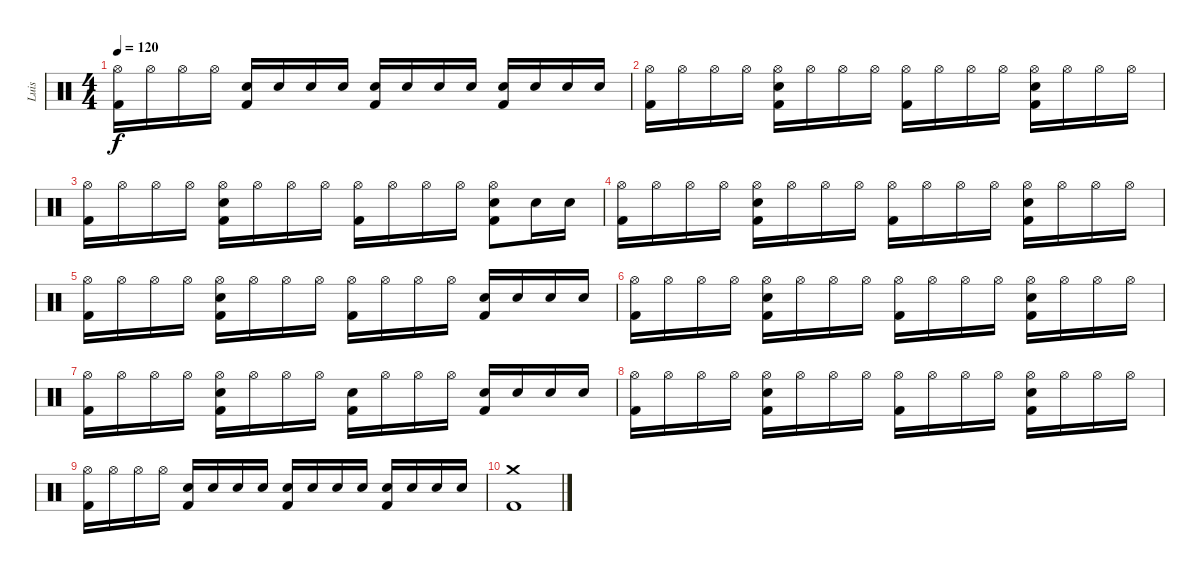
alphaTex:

\track ("Luis" "Luis") {instrument percussion}
\staff {score}
\articulation defaults
\ts (4 4)
\tempo 120
\clef neutral
\ks c
("Hi-Hat (open)" "Kick (hit) 2").16{dy f} "Hi-Hat (open)".16 "Hi-Hat (open)".16 "Hi-Hat (open)".16 ("Electric Snare (hit)" "Kick (hit) 2").16 "Electric Snare (hit)".16 "Electric Snare (hit)".16 "Electric Snare (hit)".16 ("Electric Snare (hit)" "Kick (hit) 2").16 "Electric Snare (hit)".16 "Electric Snare (hit)".16 "Electric Snare (hit)".16 ("Electric Snare (hit)" "Kick (hit) 2").16 "Electric Snare (hit)".16 "Electric Snare (hit)".16 "Electric Snare (hit)".16 |
("Hi-Hat (open)" "Kick (hit) 2").16 "Hi-Hat (open)".16 "Hi-Hat (open)".16 "Hi-Hat (open)".16 ("Hi-Hat (open)" "Electric Snare (hit)" "Kick (hit) 2").16 "Hi-Hat (open)".16 "Hi-Hat (open)".16 "Hi-Hat (open)".16 ("Hi-Hat (open)" "Kick (hit) 2").16 "Hi-Hat (open)".16 "Hi-Hat (open)".16 "Hi-Hat (open)".16 ("Hi-Hat (open)" "Electric Snare (hit)" "Kick (hit) 2").16 "Hi-Hat (open)".16 "Hi-Hat (open)".16 "Hi-Hat (open)".16 |
("Hi-Hat (open)" "Kick (hit) 2").16 "Hi-Hat (open)".16 "Hi-Hat (open)".16 "Hi-Hat (open)".16 ("Hi-Hat (open)" "Electric Snare (hit)" "Kick (hit) 2").16 "Hi-Hat (open)".16 "Hi-Hat (open)".16 "Hi-Hat (open)".16 ("Hi-Hat (open)" "Kick (hit) 2").16 "Hi-Hat (open)".16 "Hi-Hat (open)".16 "Hi-Hat (open)".16 ("Hi-Hat (open)" "Electric Snare (hit)" "Kick (hit) 2").8 "Electric Snare (hit)".16 "Electric Snare (hit)".16 |
("Hi-Hat (open)" "Kick (hit) 2").16 "Hi-Hat (open)".16 "Hi-Hat (open)".16 "Hi-Hat (open)".16 ("Hi-Hat (open)" "Electric Snare (hit)" "Kick (hit) 2").16 "Hi-Hat (open)".16 "Hi-Hat (open)".16 "Hi-Hat (open)".16 ("Hi-Hat (open)" "Kick (hit) 2").16 "Hi-Hat (open)".16 "Hi-Hat (open)".16 "Hi-Hat (open)".16 ("Hi-Hat (open)" "Electric Snare (hit)" "Kick (hit) 2").16 "Hi-Hat (open)".16 "Hi-Hat (open)".16 "Hi-Hat (open)".16 |
("Hi-Hat (open)" "Kick (hit) 2").16 "Hi-Hat (open)".16 "Hi-Hat (open)".16 "Hi-Hat (open)".16 ("Hi-Hat (open)" "Electric Snare (hit)" "Kick (hit) 2").16 "Hi-Hat (open)".16 "Hi-Hat (open)".16 "Hi-Hat (open)".16 ("Hi-Hat (open)" "Kick (hit) 2").16 "Hi-Hat (open)".16 "Hi-Hat (open)".16 "Hi-Hat (open)".16 ("Electric Snare (hit)" "Kick (hit) 2").16 "Electric Snare (hit)".16 "Electric Snare (hit)".16 "Electric Snare (hit)".16 |
("Hi-Hat (open)" "Kick (hit) 2").16 "Hi-Hat (open)".16 "Hi-Hat (open)".16 "Hi-Hat (open)".16 ("Hi-Hat (open)" "Electric Snare (hit)" "Kick (hit) 2").16 "Hi-Hat (open)".16 "Hi-Hat (open)".16 "Hi-Hat (open)".16 ("Hi-Hat (open)" "Kick (hit) 2").16 "Hi-Hat (open)".16 "Hi-Hat (open)".16 "Hi-Hat (open)".16 ("Hi-Hat (open)" "Electric Snare (hit)" "Kick (hit) 2").16 "Hi-Hat (open)".16 "Hi-Hat (open)".16 "Hi-Hat (open)".16 |
("Hi-Hat (open)" "Kick (hit) 2").16 "Hi-Hat (open)".16 "Hi-Hat (open)".16 "Hi-Hat (open)".16 ("Hi-Hat (open)" "Electric Snare (hit)" "Kick (hit) 2").16 "Hi-Hat (open)".16 "Hi-Hat (open)".16 "Hi-Hat (open)".16 ("Electric Snare (hit)" "Kick (hit) 2").16 "Hi-Hat (open)".16 "Hi-Hat (open)".16 "Hi-Hat (open)".16 ("Electric Snare (hit)" "Kick (hit) 2").16 "Electric Snare (hit)".16 "Electric Snare (hit)".16 "Electric Snare (hit)".16 |
("Hi-Hat (open)" "Kick (hit) 2").16 "Hi-Hat (open)".16 "Hi-Hat (open)".16 "Hi-Hat (open)".16 ("Hi-Hat (open)" "Electric Snare (hit)" "Kick (hit) 2").16 "Hi-Hat (open)".16 "Hi-Hat (open)".16 "Hi-Hat (open)".16 ("Hi-Hat (open)" "Kick (hit) 2").16 "Hi-Hat (open)".16 "Hi-Hat (open)".16 "Hi-Hat (open)".16 ("Hi-Hat (open)" "Electric Snare (hit)" "Kick (hit) 2").16 "Hi-Hat (open)".16 "Hi-Hat (open)".16 "Hi-Hat (open)".16 |
("Hi-Hat (open)" "Kick (hit) 2").16 "Hi-Hat (open)".16 "Hi-Hat (open)".16 "Hi-Hat (open)".16 ("Electric Snare (hit)" "Kick (hit) 2").16 "Electric Snare (hit)".16 "Electric Snare (hit)".16 "Electric Snare (hit)".16 ("Electric Snare (hit)" "Kick (hit) 2").16 "Electric Snare (hit)".16 "Electric Snare (hit)".16 "Electric Snare (hit)".16 ("Electric Snare (hit)" "Kick (hit) 2").16 "Electric Snare (hit)".16 "Electric Snare (hit)".16 "Electric Snare (hit)".16 |
("Crash medium (hit)" "Kick (hit) 2").1
